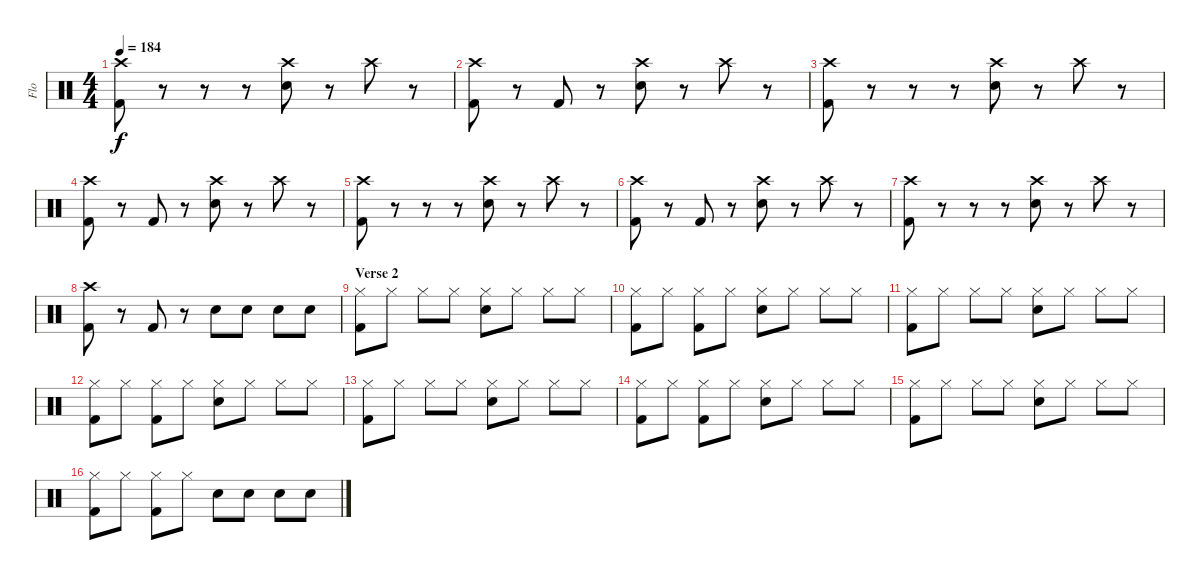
\track ("Flo" "Flo") {instrument percussion}
\staff {score}
\articulation defaults
\ts (4 4)
\tempo 184
\clef neutral
\ks c
("Crash high (hit)" "Kick (hit) 2").8{dy f} r.8 r.8 r.8 ("Crash high (hit)" "Electric Snare (hit)").8 r.8 "Crash high (hit)".8 r.8 |
("Crash high (hit)" "Kick (hit) 2").8 r.8 "Kick (hit) 2".8 r.8 ("Crash high (hit)" "Electric Snare (hit)").8 r.8 "Crash high (hit)".8 r.8 |
("Crash high (hit)" "Kick (hit) 2").8 r.8 r.8 r.8 ("Crash high (hit)" "Electric Snare (hit)").8 r.8 "Crash high (hit)".8 r.8 |
("Crash high (hit)" "Kick (hit) 2").8 r.8 "Kick (hit) 2".8 r.8 ("Crash high (hit)" "Electric Snare (hit)").8 r.8 "Crash high (hit)".8 r.8 |
("Crash high (hit)" "Kick (hit) 2").8 r.8 r.8 r.8 ("Crash high (hit)" "Electric Snare (hit)").8 r.8 "Crash high (hit)".8 r.8 |
("Crash high (hit)" "Kick (hit) 2").8 r.8 "Kick (hit) 2".8 r.8 ("Crash high (hit)" "Electric Snare (hit)").8 r.8 "Crash high (hit)".8 r.8 |
("Crash high (hit)" "Kick (hit) 2").8 r.8 r.8 r.8 ("Crash high (hit)" "Electric Snare (hit)").8 r.8 "Crash high (hit)".8 r.8 |
("Crash high (hit)" "Kick (hit) 2").8 r.8 "Kick (hit) 2".8 r.8 "Electric Snare (hit)".8 "Electric Snare (hit)".8 "Electric Snare (hit)".8 "Electric Snare (hit)".8 |
\section ("" "Verse 2")
("Hi-Hat (closed)" "Kick (hit) 2").8 "Hi-Hat (closed)".8 "Hi-Hat (closed)".8 "Hi-Hat (closed)".8 ("Hi-Hat (closed)" "Electric Snare (hit)").8 "Hi-Hat (closed)".8 "Hi-Hat (closed)".8 "Hi-Hat (closed)".8 |
("Hi-Hat (closed)" "Kick (hit) 2").8 "Hi-Hat (closed)".8 ("Hi-Hat (closed)" "Kick (hit) 2").8 "Hi-Hat (closed)".8 ("Hi-Hat (closed)" "Electric Snare (hit)").8 "Hi-Hat (closed)".8 "Hi-Hat (closed)".8 "Hi-Hat (closed)".8 |
("Hi-Hat (closed)" "Kick (hit) 2").8 "Hi-Hat (closed)".8 "Hi-Hat (closed)".8 "Hi-Hat (closed)".8 ("Hi-Hat (closed)" "Electric Snare (hit)").8 "Hi-Hat (closed)".8 "Hi-Hat (closed)".8 "Hi-Hat (closed)".8 |
("Hi-Hat (closed)" "Kick (hit) 2").8 "Hi-Hat (closed)".8 ("Hi-Hat (closed)" "Kick (hit) 2").8 "Hi-Hat (closed)".8 ("Hi-Hat (closed)" "Electric Snare (hit)").8 "Hi-Hat (closed)".8 "Hi-Hat (closed)".8 "Hi-Hat (closed)".8 |
("Hi-Hat (closed)" "Kick (hit) 2").8 "Hi-Hat (closed)".8 "Hi-Hat (closed)".8 "Hi-Hat (closed)".8 ("Hi-Hat (closed)" "Electric Snare (hit)").8 "Hi-Hat (closed)".8 "Hi-Hat (closed)".8 "Hi-Hat (closed)".8 |
("Hi-Hat (closed)" "Kick (hit) 2").8 "Hi-Hat (closed)".8 ("Hi-Hat (closed)" "Kick (hit) 2").8 "Hi-Hat (closed)".8 ("Hi-Hat (closed)" "Electric Snare (hit)").8 "Hi-Hat (closed)".8 "Hi-Hat (closed)".8 "Hi-Hat (closed)".8 |
("Hi-Hat (closed)" "Kick (hit) 2").8 "Hi-Hat (closed)".8 "Hi-Hat (closed)".8 "Hi-Hat (closed)".8 ("Hi-Hat (closed)" "Electric Snare (hit)").8 "Hi-Hat (closed)".8 "Hi-Hat (closed)".8 "Hi-Hat (closed)".8 |
("Hi-Hat (closed)" "Kick (hit) 2").8 "Hi-Hat (closed)".8 ("Hi-Hat (closed)" "Kick (hit) 2").8 "Hi-Hat (closed)".8 "Electric Snare (hit)".8 "Electric Snare (hit)".8 "Electric Snare (hit)".8 "Electric Snare (hit)".8
